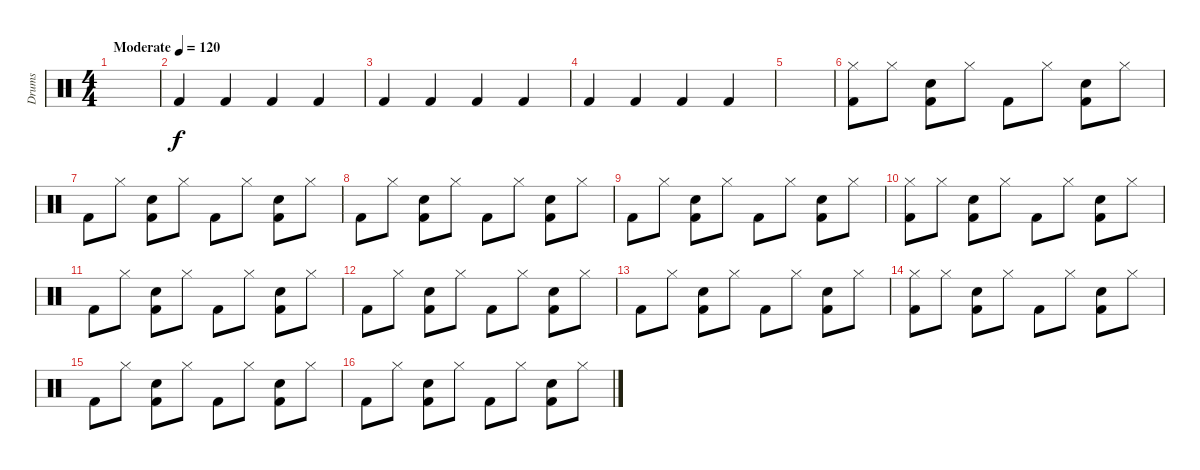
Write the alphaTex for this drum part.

\track ("Drums" "Drums") {instrument percussion}
\staff {score}
\articulation defaults
\ts (4 4)
\tempo (120 "Moderate")
\clef neutral
\ks c
|
"Kick (hit) 2".4 "Kick (hit) 2".4 "Kick (hit) 2".4 "Kick (hit) 2".4 |
"Kick (hit) 2".4 "Kick (hit) 2".4 "Kick (hit) 2".4 "Kick (hit) 2".4 |
"Kick (hit) 2".4 "Kick (hit) 2".4 "Kick (hit) 2".4 "Kick (hit) 2".4 |
|
("Hi-Hat (closed)" "Kick (hit) 2").8 "Hi-Hat (closed)".8 ("Snare (hit) 2" "Kick (hit) 2").8 "Hi-Hat (closed)".8 "Kick (hit) 2".8 "Hi-Hat (closed)".8 ("Snare (hit) 2" "Kick (hit) 2").8 "Hi-Hat (closed)".8 |
"Kick (hit) 2".8 "Hi-Hat (closed)".8 ("Snare (hit) 2" "Kick (hit) 2").8 "Hi-Hat (closed)".8 "Kick (hit) 2".8 "Hi-Hat (closed)".8 ("Snare (hit) 2" "Kick (hit) 2").8 "Hi-Hat (closed)".8 |
"Kick (hit) 2".8 "Hi-Hat (closed)".8 ("Snare (hit) 2" "Kick (hit) 2").8 "Hi-Hat (closed)".8 "Kick (hit) 2".8 "Hi-Hat (closed)".8 ("Snare (hit) 2" "Kick (hit) 2").8 "Hi-Hat (closed)".8 |
"Kick (hit) 2".8 "Hi-Hat (closed)".8 ("Snare (hit) 2" "Kick (hit) 2").8 "Hi-Hat (closed)".8 "Kick (hit) 2".8 "Hi-Hat (closed)".8 ("Snare (hit) 2" "Kick (hit) 2").8 "Hi-Hat (closed)".8 |
("Hi-Hat (closed)" "Kick (hit) 2").8 "Hi-Hat (closed)".8 ("Snare (hit) 2" "Kick (hit) 2").8 "Hi-Hat (closed)".8 "Kick (hit) 2".8 "Hi-Hat (closed)".8 ("Snare (hit) 2" "Kick (hit) 2").8 "Hi-Hat (closed)".8 |
"Kick (hit) 2".8 "Hi-Hat (closed)".8 ("Snare (hit) 2" "Kick (hit) 2").8 "Hi-Hat (closed)".8 "Kick (hit) 2".8 "Hi-Hat (closed)".8 ("Snare (hit) 2" "Kick (hit) 2").8 "Hi-Hat (closed)".8 |
"Kick (hit) 2".8 "Hi-Hat (closed)".8 ("Snare (hit) 2" "Kick (hit) 2").8 "Hi-Hat (closed)".8 "Kick (hit) 2".8 "Hi-Hat (closed)".8 ("Snare (hit) 2" "Kick (hit) 2").8 "Hi-Hat (closed)".8 |
"Kick (hit) 2".8 "Hi-Hat (closed)".8 ("Snare (hit) 2" "Kick (hit) 2").8 "Hi-Hat (closed)".8 "Kick (hit) 2".8 "Hi-Hat (closed)".8 ("Snare (hit) 2" "Kick (hit) 2").8 "Hi-Hat (closed)".8 |
("Hi-Hat (closed)" "Kick (hit) 2").8 "Hi-Hat (closed)".8 ("Snare (hit) 2" "Kick (hit) 2").8 "Hi-Hat (closed)".8 "Kick (hit) 2".8 "Hi-Hat (closed)".8 ("Snare (hit) 2" "Kick (hit) 2").8 "Hi-Hat (closed)".8 |
"Kick (hit) 2".8 "Hi-Hat (closed)".8 ("Snare (hit) 2" "Kick (hit) 2").8 "Hi-Hat (closed)".8 "Kick (hit) 2".8 "Hi-Hat (closed)".8 ("Snare (hit) 2" "Kick (hit) 2").8 "Hi-Hat (closed)".8 |
"Kick (hit) 2".8 "Hi-Hat (closed)".8 ("Snare (hit) 2" "Kick (hit) 2").8 "Hi-Hat (closed)".8 "Kick (hit) 2".8 "Hi-Hat (closed)".8 ("Snare (hit) 2" "Kick (hit) 2").8 "Hi-Hat (closed)".8
